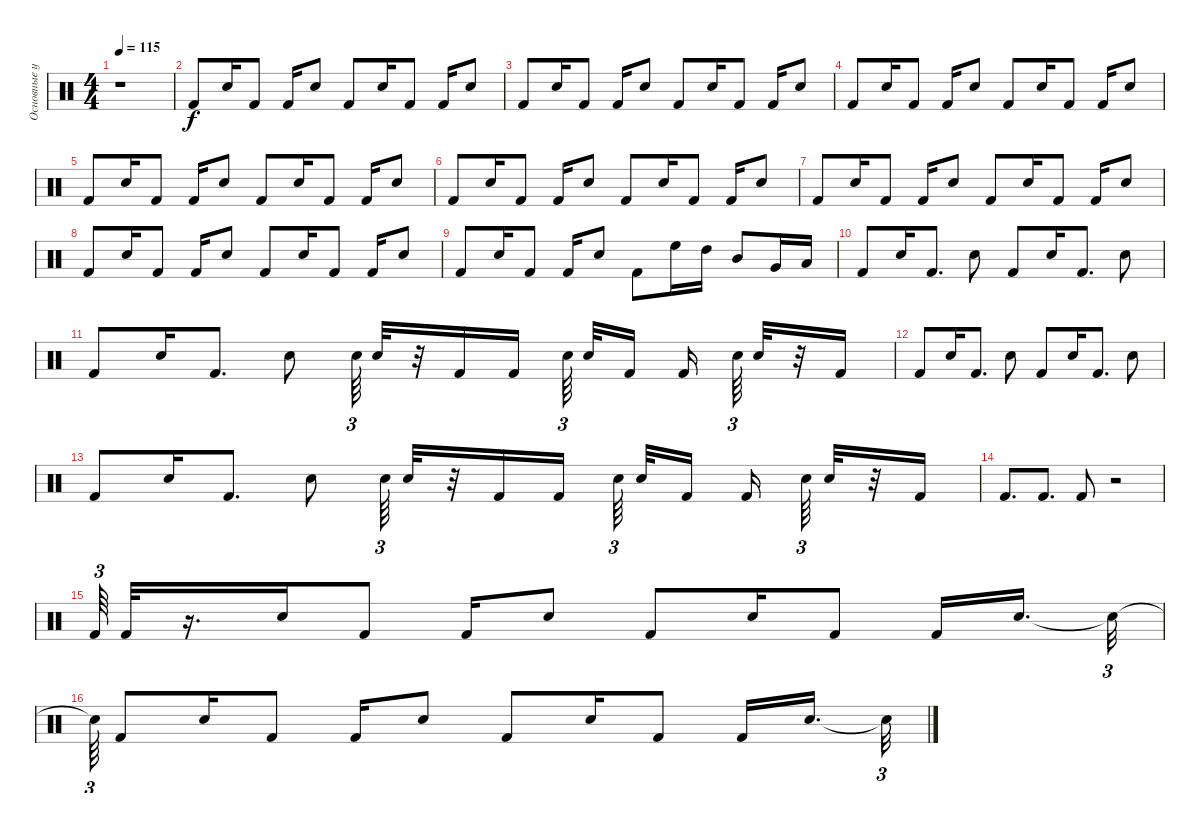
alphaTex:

\track ("Основные ударные" "Основные у") {instrument percussion}
\staff {score}
\articulation defaults
\ts (4 4)
\tempo 115
\clef neutral
\ks c
r.1{dy f} |
"Kick (hit) 2".8 "Electric Snare (hit)".16 "Kick (hit) 2".8 "Kick (hit) 2".16 "Electric Snare (hit)".8 "Kick (hit) 2".8 "Electric Snare (hit)".16 "Kick (hit) 2".8 "Kick (hit) 2".16 "Electric Snare (hit)".8 |
"Kick (hit) 2".8 "Electric Snare (hit)".16 "Kick (hit) 2".8 "Kick (hit) 2".16 "Electric Snare (hit)".8 "Kick (hit) 2".8 "Electric Snare (hit)".16 "Kick (hit) 2".8 "Kick (hit) 2".16 "Electric Snare (hit)".8 |
"Kick (hit) 2".8 "Electric Snare (hit)".16 "Kick (hit) 2".8 "Kick (hit) 2".16 "Electric Snare (hit)".8 "Kick (hit) 2".8 "Electric Snare (hit)".16 "Kick (hit) 2".8 "Kick (hit) 2".16 "Electric Snare (hit)".8 |
"Kick (hit) 2".8 "Electric Snare (hit)".16 "Kick (hit) 2".8 "Kick (hit) 2".16 "Electric Snare (hit)".8 "Kick (hit) 2".8 "Electric Snare (hit)".16 "Kick (hit) 2".8 "Kick (hit) 2".16 "Electric Snare (hit)".8 |
"Kick (hit) 2".8 "Electric Snare (hit)".16 "Kick (hit) 2".8 "Kick (hit) 2".16 "Electric Snare (hit)".8 "Kick (hit) 2".8 "Electric Snare (hit)".16 "Kick (hit) 2".8 "Kick (hit) 2".16 "Electric Snare (hit)".8 |
"Kick (hit) 2".8 "Electric Snare (hit)".16 "Kick (hit) 2".8 "Kick (hit) 2".16 "Electric Snare (hit)".8 "Kick (hit) 2".8 "Electric Snare (hit)".16 "Kick (hit) 2".8 "Kick (hit) 2".16 "Electric Snare (hit)".8 |
"Kick (hit) 2".8 "Electric Snare (hit)".16 "Kick (hit) 2".8 "Kick (hit) 2".16 "Electric Snare (hit)".8 "Kick (hit) 2".8 "Electric Snare (hit)".16 "Kick (hit) 2".8 "Kick (hit) 2".16 "Electric Snare (hit)".8 |
"Kick (hit) 2".8 "Electric Snare (hit)".16 "Kick (hit) 2".8 "Kick (hit) 2".16 "Electric Snare (hit)".8 "Kick (hit) 2".8 "High Floor Tom (hit)".16 "High Tom (hit)".16 "Mid Tom (hit)".8 "Very Low Tom (hit)".16 "Low Floor Tom (hit)".16 |
"Kick (hit) 2".8 "Electric Snare (hit)".16 "Kick (hit) 2".8{d} "Electric Snare (hit)".8 "Kick (hit) 2".8 "Electric Snare (hit)".16 "Kick (hit) 2".8{d} "Electric Snare (hit)".8 |
"Kick (hit) 2".8 "Electric Snare (hit)".16 "Kick (hit) 2".8{d} "Electric Snare (hit)".8 "Electric Snare (hit)".64{tu (3 2)} "Electric Snare (hit)".32 r.32 "Kick (hit) 2".16 "Kick (hit) 2".16{beam splitsecondary} "Electric Snare (hit)".64{tu (3 2) beam splitsecondary} "Electric Snare (hit)".32 "Kick (hit) 2".16 "Kick (hit) 2".16{beam splitsecondary} "Electric Snare (hit)".64{tu (3 2)} "Electric Snare (hit)".32 r.32 "Kick (hit) 2".16 |
"Kick (hit) 2".8 "Electric Snare (hit)".16 "Kick (hit) 2".8{d} "Electric Snare (hit)".8 "Kick (hit) 2".8 "Electric Snare (hit)".16 "Kick (hit) 2".8{d} "Electric Snare (hit)".8 |
"Kick (hit) 2".8 "Electric Snare (hit)".16 "Kick (hit) 2".8{d} "Electric Snare (hit)".8 "Electric Snare (hit)".64{tu (3 2)} "Electric Snare (hit)".32 r.32 "Kick (hit) 2".16 "Kick (hit) 2".16{beam splitsecondary} "Electric Snare (hit)".64{tu (3 2) beam splitsecondary} "Electric Snare (hit)".32 "Kick (hit) 2".16 "Kick (hit) 2".16{beam splitsecondary} "Electric Snare (hit)".64{tu (3 2)} "Electric Snare (hit)".32 r.32 "Kick (hit) 2".16 |
"Kick (hit) 2".8{d} "Kick (hit) 2".8{d} "Kick (hit) 2".8 r.2 |
"Kick (hit) 2".64{tu (3 2)} "Kick (hit) 2".32 r.16{d} "Electric Snare (hit)".16 "Kick (hit) 2".8 "Kick (hit) 2".16 "Electric Snare (hit)".8 "Kick (hit) 2".8 "Electric Snare (hit)".16 "Kick (hit) 2".8 "Kick (hit) 2".16 "Electric Snare (hit)".16{d beam splitsecondary} "Snare (hit)"{t}.32{tu (3 2)} |
"Snare (hit)"{t}.64{tu (3 2)} "Kick (hit) 2".8 "Electric Snare (hit)".16 "Kick (hit) 2".8 "Kick (hit) 2".16 "Electric Snare (hit)".8 "Kick (hit) 2".8 "Electric Snare (hit)".16 "Kick (hit) 2".8 "Kick (hit) 2".16 "Electric Snare (hit)".16{d beam splitsecondary} "Snare (hit)"{t}.32{tu (3 2)}
